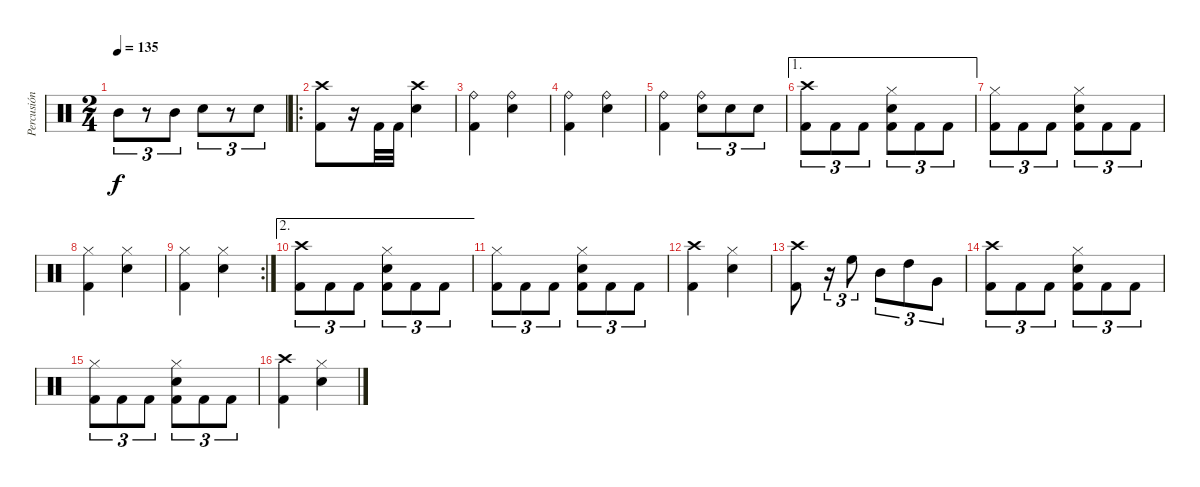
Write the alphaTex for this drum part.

\track ("Percusión" "Percusión") {instrument percussion}
\staff {score}
\articulation defaults
\ts (2 4)
\tempo 135
\clef neutral
\ks c "Mid Tom (hit)".8{tu (3 2) dy f}
r.8{tu (3 2)} "Mid Tom (hit)".8{tu (3 2)} "Snare (hit) 2".8{tu (3 2)} r.8{tu (3 2)} "Snare (hit) 2".8{tu (3 2)} |
\ro
("Crash high (hit)" "Kick (hit) 2").8 r.16 "Kick (hit) 2".32 "Kick (hit) 2".32 ("Crash high (hit)" "Snare (hit) 2").4 |
("Ride (bell)" "Kick (hit) 2").4 ("Ride (bell)" "Snare (hit) 2").4 |
("Ride (bell)" "Kick (hit) 2").4 ("Ride (bell)" "Snare (hit) 2").4 |
("Ride (bell)" "Kick (hit) 2").4 ("Ride (bell)" "Snare (hit) 2").8{tu (3 2)} "Snare (hit) 2".8{tu (3 2)} "Snare (hit) 2".8{tu (3 2)} |
\ae 1
("Crash high (hit)" "Kick (hit) 2").8{tu (3 2)} "Kick (hit) 2".8{tu (3 2)} "Kick (hit) 2".8{tu (3 2)} ("Hi-Hat (closed)" "Snare (hit) 2" "Kick (hit) 2").8{tu (3 2)} "Kick (hit) 2".8{tu (3 2)} "Kick (hit) 2".8{tu (3 2)} |
("Hi-Hat (closed)" "Kick (hit) 2").8{tu (3 2)} "Kick (hit) 2".8{tu (3 2)} "Kick (hit) 2".8{tu (3 2)} ("Hi-Hat (closed)" "Snare (hit) 2" "Kick (hit) 2").8{tu (3 2)} "Kick (hit) 2".8{tu (3 2)} "Kick (hit) 2".8{tu (3 2)} |
("Hi-Hat (closed)" "Kick (hit) 2").4 ("Hi-Hat (closed)" "Snare (hit) 2").4 |
\rc 2
("Hi-Hat (closed)" "Kick (hit) 2").4 ("Hi-Hat (closed)" "Snare (hit) 2").4 |
\ae 2
("Crash high (hit)" "Kick (hit) 2").8{tu (3 2)} "Kick (hit) 2".8{tu (3 2)} "Kick (hit) 2".8{tu (3 2)} ("Hi-Hat (closed)" "Snare (hit) 2" "Kick (hit) 2").8{tu (3 2)} "Kick (hit) 2".8{tu (3 2)} "Kick (hit) 2".8{tu (3 2)} |
("Hi-Hat (closed)" "Kick (hit) 2").8{tu (3 2)} "Kick (hit) 2".8{tu (3 2)} "Kick (hit) 2".8{tu (3 2)} ("Hi-Hat (closed)" "Snare (hit) 2" "Kick (hit) 2").8{tu (3 2)} "Kick (hit) 2".8{tu (3 2)} "Kick (hit) 2".8{tu (3 2)} |
("Crash high (hit)" "Kick (hit) 2").4 ("Hi-Hat (closed)" "Snare (hit) 2").4 |
("Crash high (hit)" "Kick (hit) 2").8 r.16{tu (3 2)} "High Floor Tom (hit)".8{tu (3 2)} "Mid Tom (hit)".8{tu (3 2)} "High Tom (hit)".8{tu (3 2)} "Very Low Tom (hit)".8{tu (3 2)} |
("Crash high (hit)" "Kick (hit) 2").8{tu (3 2)} "Kick (hit) 2".8{tu (3 2)} "Kick (hit) 2".8{tu (3 2)} ("Hi-Hat (closed)" "Snare (hit) 2" "Kick (hit) 2").8{tu (3 2)} "Kick (hit) 2".8{tu (3 2)} "Kick (hit) 2".8{tu (3 2)} |
("Hi-Hat (closed)" "Kick (hit) 2").8{tu (3 2)} "Kick (hit) 2".8{tu (3 2)} "Kick (hit) 2".8{tu (3 2)} ("Hi-Hat (closed)" "Snare (hit) 2" "Kick (hit) 2").8{tu (3 2)} "Kick (hit) 2".8{tu (3 2)} "Kick (hit) 2".8{tu (3 2)} |
("Crash high (hit)" "Kick (hit) 2").4 ("Hi-Hat (closed)" "Snare (hit) 2").4
